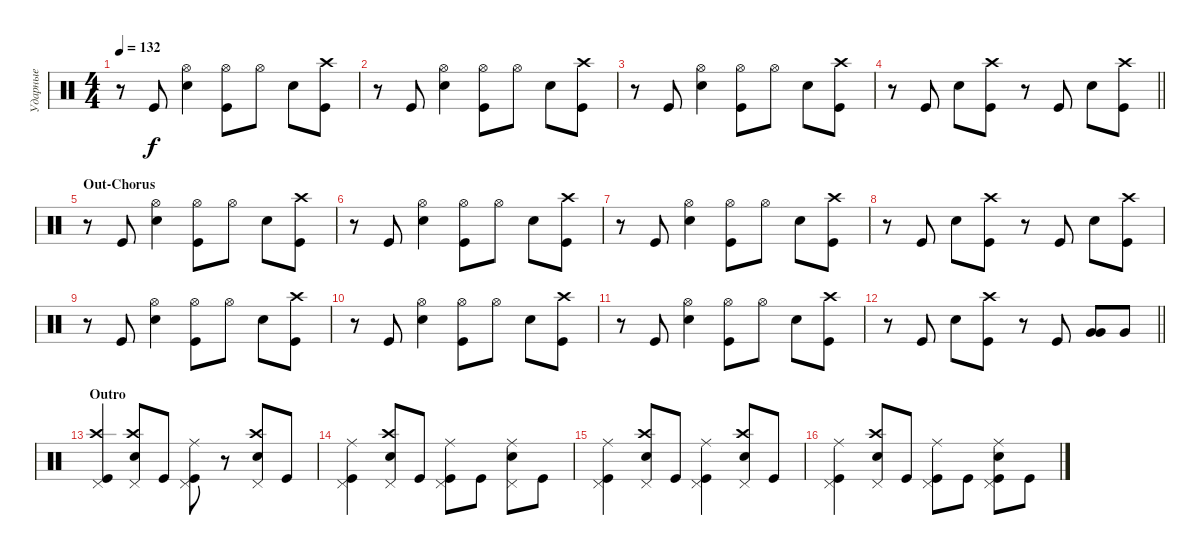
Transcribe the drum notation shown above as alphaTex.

\track ("Ударные" "Ударные") {instrument percussion}
\staff {score}
\articulation defaults
\ts (4 4)
\tempo 132
\clef neutral
\ks c
r.8{dy f} "Kick (hit)".8 ("Snare (hit) 2" "Hi-Hat (open)").4 ("Hi-Hat (open)" "Kick (hit)").8 "Hi-Hat (open)".8 "Snare (hit) 2".8 ("Kick (hit)" "Crash high (hit)").8 |
r.8 "Kick (hit)".8 ("Snare (hit) 2" "Hi-Hat (open)").4 ("Hi-Hat (open)" "Kick (hit)").8 "Hi-Hat (open)".8 "Snare (hit) 2".8 ("Kick (hit)" "Crash high (hit)").8 |
r.8 "Kick (hit)".8 ("Snare (hit) 2" "Hi-Hat (open)").4 ("Hi-Hat (open)" "Kick (hit)").8 "Hi-Hat (open)".8 "Snare (hit) 2".8 ("Kick (hit)" "Crash high (hit)").8 |
\barLineRight lightlight
r.8 "Kick (hit)".8 "Snare (hit) 2".8 ("Crash high (hit)" "Kick (hit)").8 r.8 "Kick (hit)".8 "Snare (hit) 2".8 ("Kick (hit)" "Crash high (hit)").8 |
\section ("" "Out-Chorus")
r.8 "Kick (hit)".8 ("Snare (hit) 2" "Hi-Hat (open)").4 ("Hi-Hat (open)" "Kick (hit)").8 "Hi-Hat (open)".8 "Snare (hit) 2".8 ("Kick (hit)" "Crash high (hit)").8 |
r.8 "Kick (hit)".8 ("Snare (hit) 2" "Hi-Hat (open)").4 ("Hi-Hat (open)" "Kick (hit)").8 "Hi-Hat (open)".8 "Snare (hit) 2".8 ("Kick (hit)" "Crash high (hit)").8 |
r.8 "Kick (hit)".8 ("Snare (hit) 2" "Hi-Hat (open)").4 ("Hi-Hat (open)" "Kick (hit)").8 "Hi-Hat (open)".8 "Snare (hit) 2".8 ("Kick (hit)" "Crash high (hit)").8 |
r.8 "Kick (hit)".8 "Snare (hit) 2".8 ("Crash high (hit)" "Kick (hit)").8 r.8 "Kick (hit)".8 "Snare (hit) 2".8 ("Kick (hit)" "Crash high (hit)").8 |
r.8 "Kick (hit)".8 ("Snare (hit) 2" "Hi-Hat (open)").4 ("Hi-Hat (open)" "Kick (hit)").8 "Hi-Hat (open)".8 "Snare (hit) 2".8 ("Kick (hit)" "Crash high (hit)").8 |
r.8 "Kick (hit)".8 ("Snare (hit) 2" "Hi-Hat (open)").4 ("Hi-Hat (open)" "Kick (hit)").8 "Hi-Hat (open)".8 "Snare (hit) 2".8 ("Kick (hit)" "Crash high (hit)").8 |
r.8 "Kick (hit)".8 ("Snare (hit) 2" "Hi-Hat (open)").4 ("Hi-Hat (open)" "Kick (hit)").8 "Hi-Hat (open)".8 "Snare (hit) 2".8 ("Kick (hit)" "Crash high (hit)").8 |
\barLineRight lightlight
r.8 "Kick (hit)".8 "Snare (hit) 2".8 ("Crash high (hit)" "Kick (hit)").8 r.8 "Kick (hit)".8 ("Very Low Tom (hit)" "Very Low Tom (hit)").8{bd 240} "Very Low Tom (hit)".8 |
\section ("" "Outro")
("Kick (hit)" "Crash high (hit)" "Pedal Hi-Hat (hit)").4 ("Snare (hit) 2" "Crash high (hit)" "Pedal Hi-Hat (hit)").8 "Kick (hit)".8 ("Ride (middle)" "Pedal Hi-Hat (hit)" "Kick (hit)").8 r.8 ("Crash high (hit)" "Snare (hit) 2" "Pedal Hi-Hat (hit)").8 "Kick (hit)".8 |
("Pedal Hi-Hat (hit)" "Ride (middle)" "Kick (hit)").4 ("Snare (hit) 2" "Pedal Hi-Hat (hit)" "Crash high (hit)").8 "Kick (hit)".8 ("Kick (hit)" "Pedal Hi-Hat (hit)" "Ride (middle)").8 "Kick (hit)".8 ("Snare (hit) 2" "Pedal Hi-Hat (hit)" "Ride (middle)").8 "Kick (hit)".8 |
("Kick (hit)" "Ride (middle)" "Pedal Hi-Hat (hit)").4 ("Snare (hit) 2" "Crash high (hit)" "Pedal Hi-Hat (hit)").8 "Kick (hit)".8 ("Ride (middle)" "Pedal Hi-Hat (hit)" "Kick (hit)").4 ("Crash high (hit)" "Snare (hit) 2" "Pedal Hi-Hat (hit)").8 "Kick (hit)".8 |
("Pedal Hi-Hat (hit)" "Ride (middle)" "Kick (hit)").4 ("Snare (hit) 2" "Pedal Hi-Hat (hit)" "Crash high (hit)").8 "Kick (hit)".8 ("Kick (hit)" "Pedal Hi-Hat (hit)" "Ride (middle)").8 "Kick (hit)".8 ("Snare (hit) 2" "Pedal Hi-Hat (hit)" "Ride (middle)" "Kick (hit)").8 "Kick (hit)".8
